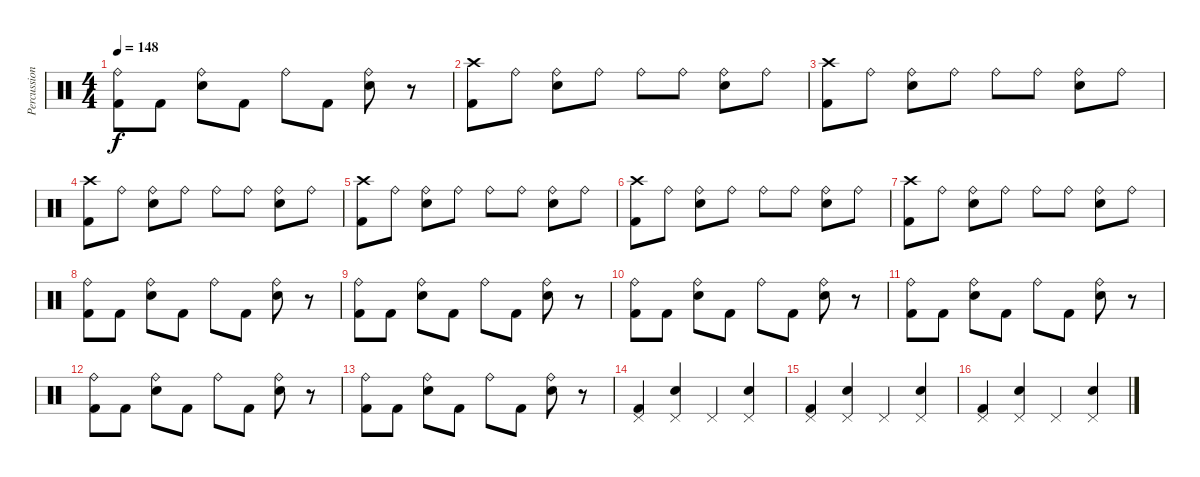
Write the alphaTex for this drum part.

\track ("Percussions" "Percussion") {instrument percussion}
\staff {score}
\articulation defaults
\ts (4 4)
\tempo 148
\clef neutral
\ks c
("Kick (hit) 2" "Ride (bell)").8{dy f} "Kick (hit) 2".8 ("Electric Snare (hit)" "Ride (bell)").8 "Kick (hit) 2".8 "Ride (bell)".8 "Kick (hit) 2".8 ("Electric Snare (hit)" "Ride (bell)").8 r.8 |
("Kick (hit) 2" "Crash high (hit)").8 "Ride (bell)".8 ("Electric Snare (hit)" "Ride (bell)").8 "Ride (bell)".8 "Ride (bell)".8 "Ride (bell)".8 ("Electric Snare (hit)" "Ride (bell)").8 "Ride (bell)".8 |
("Kick (hit) 2" "Crash high (hit)").8 "Ride (bell)".8 ("Electric Snare (hit)" "Ride (bell)").8 "Ride (bell)".8 "Ride (bell)".8 "Ride (bell)".8 ("Electric Snare (hit)" "Ride (bell)").8 "Ride (bell)".8 |
("Kick (hit) 2" "Crash high (hit)").8 "Ride (bell)".8 ("Electric Snare (hit)" "Ride (bell)").8 "Ride (bell)".8 "Ride (bell)".8 "Ride (bell)".8 ("Electric Snare (hit)" "Ride (bell)").8 "Ride (bell)".8 |
("Kick (hit) 2" "Crash high (hit)").8 "Ride (bell)".8 ("Electric Snare (hit)" "Ride (bell)").8 "Ride (bell)".8 "Ride (bell)".8 "Ride (bell)".8 ("Electric Snare (hit)" "Ride (bell)").8 "Ride (bell)".8 |
("Kick (hit) 2" "Crash high (hit)").8 "Ride (bell)".8 ("Electric Snare (hit)" "Ride (bell)").8 "Ride (bell)".8 "Ride (bell)".8 "Ride (bell)".8 ("Electric Snare (hit)" "Ride (bell)").8 "Ride (bell)".8 |
("Kick (hit) 2" "Crash high (hit)").8 "Ride (bell)".8 ("Electric Snare (hit)" "Ride (bell)").8 "Ride (bell)".8 "Ride (bell)".8 "Ride (bell)".8 ("Electric Snare (hit)" "Ride (bell)").8 "Ride (bell)".8 |
("Kick (hit) 2" "Ride (bell)").8 "Kick (hit) 2".8 ("Electric Snare (hit)" "Ride (bell)").8 "Kick (hit) 2".8 "Ride (bell)".8 "Kick (hit) 2".8 ("Electric Snare (hit)" "Ride (bell)").8 r.8 |
("Kick (hit) 2" "Ride (bell)").8 "Kick (hit) 2".8 ("Electric Snare (hit)" "Ride (bell)").8 "Kick (hit) 2".8 "Ride (bell)".8 "Kick (hit) 2".8 ("Electric Snare (hit)" "Ride (bell)").8 r.8 |
("Kick (hit) 2" "Ride (bell)").8 "Kick (hit) 2".8 ("Electric Snare (hit)" "Ride (bell)").8 "Kick (hit) 2".8 "Ride (bell)".8 "Kick (hit) 2".8 ("Electric Snare (hit)" "Ride (bell)").8 r.8 |
("Kick (hit) 2" "Ride (bell)").8 "Kick (hit) 2".8 ("Electric Snare (hit)" "Ride (bell)").8 "Kick (hit) 2".8 "Ride (bell)".8 "Kick (hit) 2".8 ("Electric Snare (hit)" "Ride (bell)").8 r.8 |
("Kick (hit) 2" "Ride (bell)").8 "Kick (hit) 2".8 ("Electric Snare (hit)" "Ride (bell)").8 "Kick (hit) 2".8 "Ride (bell)".8 "Kick (hit) 2".8 ("Electric Snare (hit)" "Ride (bell)").8 r.8 |
("Kick (hit) 2" "Ride (bell)").8 "Kick (hit) 2".8 ("Electric Snare (hit)" "Ride (bell)").8 "Kick (hit) 2".8 "Ride (bell)".8 "Kick (hit) 2".8 ("Electric Snare (hit)" "Ride (bell)").8 r.8 |
("Pedal Hi-Hat (hit)" "Kick (hit) 2").4 ("Electric Snare (hit)" "Pedal Hi-Hat (hit)").4 "Pedal Hi-Hat (hit)".4 ("Electric Snare (hit)" "Pedal Hi-Hat (hit)").4 |
("Pedal Hi-Hat (hit)" "Kick (hit) 2").4 ("Electric Snare (hit)" "Pedal Hi-Hat (hit)").4 "Pedal Hi-Hat (hit)".4 ("Electric Snare (hit)" "Pedal Hi-Hat (hit)").4 |
("Pedal Hi-Hat (hit)" "Kick (hit) 2").4 ("Electric Snare (hit)" "Pedal Hi-Hat (hit)").4 "Pedal Hi-Hat (hit)".4 ("Electric Snare (hit)" "Pedal Hi-Hat (hit)").4
